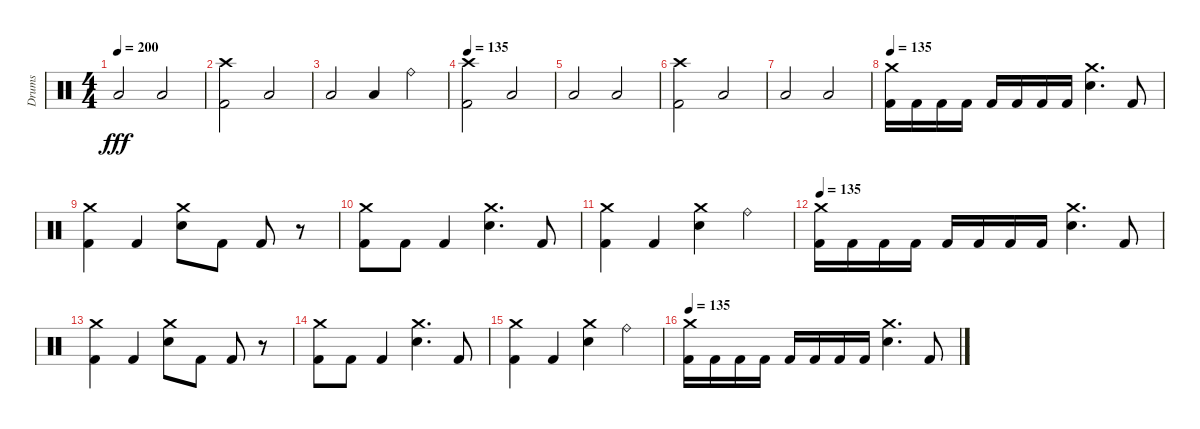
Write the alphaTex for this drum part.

\track ("Drums" "Drums") {instrument percussion}
\staff {score}
\articulation defaults
\ts (4 4)
\tempo 200
\clef neutral
\ks c "Low Floor Tom (hit)".2{dy fff} "Low Floor Tom (hit)".2
|
("Crash high (hit)" "Kick (hit) 2").2 "Low Floor Tom (hit)".2 |
"Low Floor Tom (hit)".2 "Low Floor Tom (hit)".4 "Ride (bell)".4 |
\tempo 135
("Crash high (hit)" "Kick (hit) 2").2 "Low Floor Tom (hit)".2 |
"Low Floor Tom (hit)".2 "Low Floor Tom (hit)".2 |
("Crash high (hit)" "Kick (hit) 2").2 "Low Floor Tom (hit)".2 |
"Low Floor Tom (hit)".2 "Low Floor Tom (hit)".2 |
\tempo 135
("Crash medium (hit)" "Kick (hit) 2").16 "Kick (hit) 2".16 "Kick (hit) 2".16 "Kick (hit) 2".16 "Kick (hit) 2".16 "Kick (hit) 2".16 "Kick (hit) 2".16 "Kick (hit) 2".16 ("Crash medium (hit)" "Electric Snare (hit)").4{d} "Kick (hit) 2".8 |
("Crash medium (hit)" "Kick (hit) 2").4 "Kick (hit) 2".4 ("Crash medium (hit)" "Electric Snare (hit)").8 "Kick (hit) 2".8 "Kick (hit) 2".8 r.8 |
("Crash medium (hit)" "Kick (hit) 2").8 "Kick (hit) 2".8 "Kick (hit) 2".4 ("Crash medium (hit)" "Electric Snare (hit)").4{d} "Kick (hit) 2".8 |
("Crash medium (hit)" "Kick (hit) 2").4 "Kick (hit) 2".4 ("Crash medium (hit)" "Electric Snare (hit)").4 "Ride (bell)".4 |
\tempo 135
("Crash medium (hit)" "Kick (hit) 2").16 "Kick (hit) 2".16 "Kick (hit) 2".16 "Kick (hit) 2".16 "Kick (hit) 2".16 "Kick (hit) 2".16 "Kick (hit) 2".16 "Kick (hit) 2".16 ("Crash medium (hit)" "Electric Snare (hit)").4{d} "Kick (hit) 2".8 |
("Crash medium (hit)" "Kick (hit) 2").4 "Kick (hit) 2".4 ("Crash medium (hit)" "Electric Snare (hit)").8 "Kick (hit) 2".8 "Kick (hit) 2".8 r.8 |
("Crash medium (hit)" "Kick (hit) 2").8 "Kick (hit) 2".8 "Kick (hit) 2".4 ("Crash medium (hit)" "Electric Snare (hit)").4{d} "Kick (hit) 2".8 |
("Crash medium (hit)" "Kick (hit) 2").4 "Kick (hit) 2".4 ("Crash medium (hit)" "Electric Snare (hit)").4 "Ride (bell)".4 |
\tempo 135
("Crash medium (hit)" "Kick (hit) 2").16 "Kick (hit) 2".16 "Kick (hit) 2".16 "Kick (hit) 2".16 "Kick (hit) 2".16 "Kick (hit) 2".16 "Kick (hit) 2".16 "Kick (hit) 2".16 ("Crash medium (hit)" "Electric Snare (hit)").4{d} "Kick (hit) 2".8
